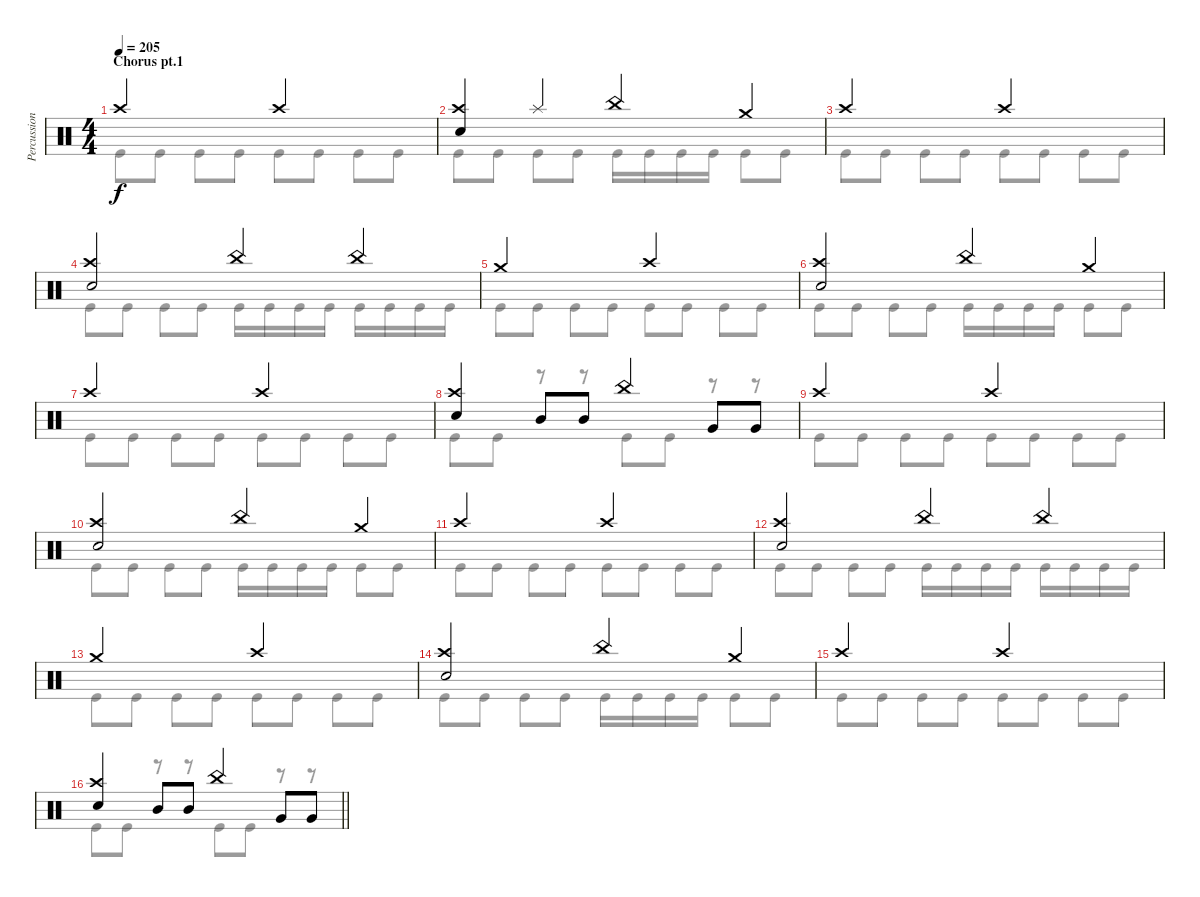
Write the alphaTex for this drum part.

\track ("Percussion" "Percussion") {instrument percussion}
\staff {score}
\articulation defaults
\voice
\ts (4 4)
\section ("" "Chorus pt.1")
\tempo 205
\clef neutral
\ks c "Crash high (hit)".2{dy f} "Crash high (hit)".2
|
("Crash high (hit)" "Electric Snare (hit)").4 "Splash (hit)".4 "China (hit)".4 "Crash medium (hit)".4 |
"Crash high (hit)".2 "Crash high (hit)".2 |
("Crash high (hit)" "Electric Snare (hit)").2 "China (hit)".4 "China (hit)".4 |
"Crash medium (hit)".2 "Crash high (hit)".2 |
("Crash high (hit)" "Electric Snare (hit)").2 "China (hit)".4 "Crash medium (hit)".4 |
"Crash high (hit)".2 "Crash high (hit)".2 |
("Crash high (hit)" "Electric Snare (hit)").4 "Mid Tom (hit)".8 "Mid Tom (hit)".8 "China (hit)".4 "Very Low Tom (hit)".8 "Very Low Tom (hit)".8 |
"Crash high (hit)".2 "Crash high (hit)".2 |
("Crash high (hit)" "Electric Snare (hit)").2 "China (hit)".4 "Crash medium (hit)".4 |
"Crash high (hit)".2 "Crash high (hit)".2 |
("Crash high (hit)" "Electric Snare (hit)").2 "China (hit)".4 "China (hit)".4 |
"Crash medium (hit)".2 "Crash high (hit)".2 |
("Crash high (hit)" "Electric Snare (hit)").2 "China (hit)".4 "Crash medium (hit)".4 |
"Crash high (hit)".2 "Crash high (hit)".2 |
\barLineRight lightlight
("Crash high (hit)" "Electric Snare (hit)").4 "Mid Tom (hit)".8 "Mid Tom (hit)".8 "China (hit)".4 "Very Low Tom (hit)".8 "Very Low Tom (hit)".8
\voice
\clef neutral
\ottava regular
\simile none
\ks c "Kick (hit)".8{dy f} "Kick (hit)".8 "Kick (hit)".8 "Kick (hit)".8 "Kick (hit)".8 "Kick (hit)".8 "Kick (hit)".8 "Kick (hit)".8
|
"Kick (hit)".8 "Kick (hit)".8 "Kick (hit)".8 "Kick (hit)".8 "Kick (hit)".16 "Kick (hit)".16 "Kick (hit)".16 "Kick (hit)".16 "Kick (hit)".8 "Kick (hit)".8 |
"Kick (hit)".8 "Kick (hit)".8 "Kick (hit)".8 "Kick (hit)".8 "Kick (hit)".8 "Kick (hit)".8 "Kick (hit)".8 "Kick (hit)".8 |
"Kick (hit)".8 "Kick (hit)".8 "Kick (hit)".8 "Kick (hit)".8 "Kick (hit)".16 "Kick (hit)".16 "Kick (hit)".16 "Kick (hit)".16 "Kick (hit)".16 "Kick (hit)".16 "Kick (hit)".16 "Kick (hit)".16 |
"Kick (hit)".8 "Kick (hit)".8 "Kick (hit)".8 "Kick (hit)".8 "Kick (hit)".8 "Kick (hit)".8 "Kick (hit)".8 "Kick (hit)".8 |
"Kick (hit)".8 "Kick (hit)".8 "Kick (hit)".8 "Kick (hit)".8 "Kick (hit)".16 "Kick (hit)".16 "Kick (hit)".16 "Kick (hit)".16 "Kick (hit)".8 "Kick (hit)".8 |
"Kick (hit)".8 "Kick (hit)".8 "Kick (hit)".8 "Kick (hit)".8 "Kick (hit)".8 "Kick (hit)".8 "Kick (hit)".8 "Kick (hit)".8 |
"Kick (hit)".8 "Kick (hit)".8 r.8 r.8 "Kick (hit)".8 "Kick (hit)".8 r.8 r.8 |
"Kick (hit)".8 "Kick (hit)".8 "Kick (hit)".8 "Kick (hit)".8 "Kick (hit)".8 "Kick (hit)".8 "Kick (hit)".8 "Kick (hit)".8 |
"Kick (hit)".8 "Kick (hit)".8 "Kick (hit)".8 "Kick (hit)".8 "Kick (hit)".16 "Kick (hit)".16 "Kick (hit)".16 "Kick (hit)".16 "Kick (hit)".8 "Kick (hit)".8 |
"Kick (hit)".8 "Kick (hit)".8 "Kick (hit)".8 "Kick (hit)".8 "Kick (hit)".8 "Kick (hit)".8 "Kick (hit)".8 "Kick (hit)".8 |
"Kick (hit)".8 "Kick (hit)".8 "Kick (hit)".8 "Kick (hit)".8 "Kick (hit)".16 "Kick (hit)".16 "Kick (hit)".16 "Kick (hit)".16 "Kick (hit)".16 "Kick (hit)".16 "Kick (hit)".16 "Kick (hit)".16 |
"Kick (hit)".8 "Kick (hit)".8 "Kick (hit)".8 "Kick (hit)".8 "Kick (hit)".8 "Kick (hit)".8 "Kick (hit)".8 "Kick (hit)".8 |
"Kick (hit)".8 "Kick (hit)".8 "Kick (hit)".8 "Kick (hit)".8 "Kick (hit)".16 "Kick (hit)".16 "Kick (hit)".16 "Kick (hit)".16 "Kick (hit)".8 "Kick (hit)".8 |
"Kick (hit)".8 "Kick (hit)".8 "Kick (hit)".8 "Kick (hit)".8 "Kick (hit)".8 "Kick (hit)".8 "Kick (hit)".8 "Kick (hit)".8 |
\barLineRight lightlight "Kick (hit)".8 "Kick (hit)".8
r.8 r.8 "Kick (hit)".8 "Kick (hit)".8 r.8 r.8
